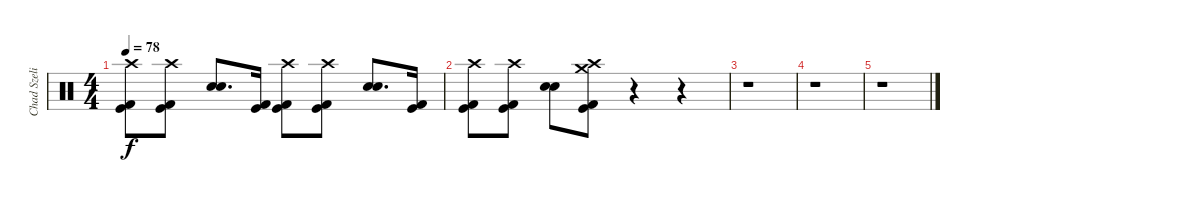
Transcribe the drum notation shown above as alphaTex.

\track ("Chad Szeliga" "Chad Szeli") {instrument percussion}
\staff {score}
\articulation defaults
\ts (4 4)
\tempo 78
\clef neutral
\ks c
("Crash high (hit)" "Kick (hit) 2" "Kick (hit)").8{dy f} ("Crash high (hit)" "Kick (hit) 2" "Kick (hit)").8 ("Snare (hit) 2" "Snare (hit) 2").8{d} ("Kick (hit) 2" "Kick (hit)").16 ("Crash high (hit)" "Kick (hit) 2" "Kick (hit)").8 ("Crash high (hit)" "Kick (hit) 2" "Kick (hit)").8 ("Snare (hit) 2" "Snare (hit) 2").8{d} ("Kick (hit) 2" "Kick (hit)").16 |
("Crash high (hit)" "Kick (hit) 2" "Kick (hit)").8 ("Crash high (hit)" "Kick (hit) 2" "Kick (hit)").8 ("Snare (hit) 2" "Snare (hit) 2").8 ("Crash high (hit)" "Kick (hit) 2" "Kick (hit)" "Crash medium (hit)").8 r.4 r.4 |
r.1 |
r.1 |
r.1
